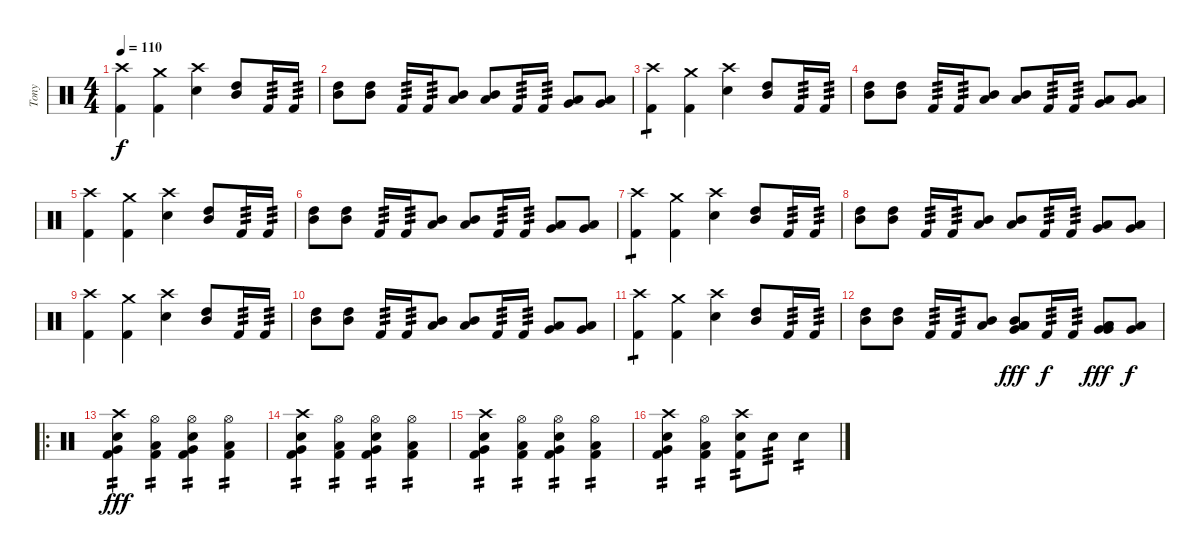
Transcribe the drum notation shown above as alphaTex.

\track ("Tony" "Tony") {instrument percussion}
\staff {score}
\articulation defaults
\ts (4 4)
\tempo 110
\clef neutral
\ks c
("Crash high (hit)" "Kick (hit) 2").4{dy f} ("Crash medium (hit)" "Kick (hit) 2").4 ("Crash high (hit)" "Snare (hit) 2").4 ("Mid Tom (hit)" "High Tom (hit)").8 "Kick (hit) 2".16{tp 3} "Kick (hit) 2".16{tp 3} |
("Mid Tom (hit)" "High Tom (hit)").8 ("Mid Tom (hit)" "High Tom (hit)").8 "Kick (hit) 2".16{tp 3} "Kick (hit) 2".16{tp 3} ("Low Tom (hit)" "Mid Tom (hit)").8 ("Low Tom (hit)" "Mid Tom (hit)").8 "Kick (hit) 2".16{tp 3} "Kick (hit) 2".16{tp 3} ("Very Low Tom (hit)" "Low Tom (hit)").8 ("Very Low Tom (hit)" "Low Tom (hit)").8 |
("Crash high (hit)" "Kick (hit) 2").4{tp 1} ("Crash medium (hit)" "Kick (hit) 2").4 ("Crash high (hit)" "Snare (hit) 2").4 ("Mid Tom (hit)" "High Tom (hit)").8 "Kick (hit) 2".16{tp 3} "Kick (hit) 2".16{tp 3} |
("Mid Tom (hit)" "High Tom (hit)").8 ("Mid Tom (hit)" "High Tom (hit)").8 "Kick (hit) 2".16{tp 3} "Kick (hit) 2".16{tp 3} ("Low Tom (hit)" "Mid Tom (hit)").8 ("Low Tom (hit)" "Mid Tom (hit)").8 "Kick (hit) 2".16{tp 3} "Kick (hit) 2".16{tp 3} ("Very Low Tom (hit)" "Low Tom (hit)").8 ("Very Low Tom (hit)" "Low Tom (hit)").8 |
("Crash high (hit)" "Kick (hit) 2").4 ("Crash medium (hit)" "Kick (hit) 2").4 ("Crash high (hit)" "Snare (hit) 2").4 ("Mid Tom (hit)" "High Tom (hit)").8 "Kick (hit) 2".16{tp 3} "Kick (hit) 2".16{tp 3} |
("Mid Tom (hit)" "High Tom (hit)").8 ("Mid Tom (hit)" "High Tom (hit)").8 "Kick (hit) 2".16{tp 3} "Kick (hit) 2".16{tp 3} ("Low Tom (hit)" "Mid Tom (hit)").8 ("Low Tom (hit)" "Mid Tom (hit)").8 "Kick (hit) 2".16{tp 3} "Kick (hit) 2".16{tp 3} ("Very Low Tom (hit)" "Low Tom (hit)").8 ("Very Low Tom (hit)" "Low Tom (hit)").8 |
("Crash high (hit)" "Kick (hit) 2").4{tp 1} ("Crash medium (hit)" "Kick (hit) 2").4 ("Crash high (hit)" "Snare (hit) 2").4 ("Mid Tom (hit)" "High Tom (hit)").8 "Kick (hit) 2".16{tp 3} "Kick (hit) 2".16{tp 3} |
("Mid Tom (hit)" "High Tom (hit)").8 ("Mid Tom (hit)" "High Tom (hit)").8 "Kick (hit) 2".16{tp 3} "Kick (hit) 2".16{tp 3} ("Low Tom (hit)" "Mid Tom (hit)").8 ("Low Tom (hit)" "Mid Tom (hit)").8 "Kick (hit) 2".16{tp 3} "Kick (hit) 2".16{tp 3} ("Very Low Tom (hit)" "Low Tom (hit)").8 ("Very Low Tom (hit)" "Low Tom (hit)").8 |
("Crash high (hit)" "Kick (hit) 2").4 ("Crash medium (hit)" "Kick (hit) 2").4 ("Crash high (hit)" "Snare (hit) 2").4 ("Mid Tom (hit)" "High Tom (hit)").8 "Kick (hit) 2".16{tp 3} "Kick (hit) 2".16{tp 3} |
("Mid Tom (hit)" "High Tom (hit)").8 ("Mid Tom (hit)" "High Tom (hit)").8 "Kick (hit) 2".16{tp 3} "Kick (hit) 2".16{tp 3} ("Low Tom (hit)" "Mid Tom (hit)").8 ("Low Tom (hit)" "Mid Tom (hit)").8 "Kick (hit) 2".16{tp 3} "Kick (hit) 2".16{tp 3} ("Very Low Tom (hit)" "Low Tom (hit)").8 ("Very Low Tom (hit)" "Low Tom (hit)").8 |
("Crash high (hit)" "Kick (hit) 2").4{tp 1} ("Crash medium (hit)" "Kick (hit) 2").4 ("Crash high (hit)" "Snare (hit) 2").4 ("Mid Tom (hit)" "High Tom (hit)").8 "Kick (hit) 2".16{tp 3} "Kick (hit) 2".16{tp 3} |
("Mid Tom (hit)" "High Tom (hit)").8 ("Mid Tom (hit)" "High Tom (hit)").8 "Kick (hit) 2".16{tp 3} "Kick (hit) 2".16{tp 3} ("Low Tom (hit)" "Mid Tom (hit)").8 ("Very Low Tom (hit)" "Low Floor Tom (hit)" "Low Tom (hit)" "Mid Tom (hit)").8{dy fff} "Kick (hit) 2".16{tp 3 dy f} "Kick (hit) 2".16{tp 3} ("Very Low Tom (hit)" "Low Floor Tom (hit)" "Very Low Tom (hit)" "Low Tom (hit)").8{dy fff} ("Very Low Tom (hit)" "Low Tom (hit)").8{dy f} |
\ro
("Very Low Tom (hit)" "Crash high (hit)" "Snare (hit) 2" "Kick (hit) 2").4{tp 2 dy fff} ("Low Floor Tom (hit)" "Hi-Hat (open)" "Kick (hit) 2").4{tp 2} ("Very Low Tom (hit)" "Hi-Hat (open)" "Snare (hit) 2" "Kick (hit) 2").4{tp 2} ("Low Floor Tom (hit)" "Hi-Hat (open)" "Kick (hit) 2").4{tp 2} |
("Very Low Tom (hit)" "Crash high (hit)" "Snare (hit) 2" "Kick (hit) 2").4{tp 2} ("Low Floor Tom (hit)" "Hi-Hat (open)" "Kick (hit) 2").4{tp 2} ("Very Low Tom (hit)" "Hi-Hat (open)" "Snare (hit) 2" "Kick (hit) 2").4{tp 2} ("Low Floor Tom (hit)" "Hi-Hat (open)" "Kick (hit) 2").4{tp 2} |
("Very Low Tom (hit)" "Crash high (hit)" "Snare (hit) 2" "Kick (hit) 2").4{tp 2} ("Low Floor Tom (hit)" "Hi-Hat (open)" "Kick (hit) 2").4{tp 2} ("Very Low Tom (hit)" "Hi-Hat (open)" "Snare (hit) 2" "Kick (hit) 2").4{tp 2} ("Low Floor Tom (hit)" "Hi-Hat (open)" "Kick (hit) 2").4{tp 2} |
("Very Low Tom (hit)" "Crash high (hit)" "Snare (hit) 2" "Kick (hit) 2").4{tp 2} ("Low Floor Tom (hit)" "Hi-Hat (open)" "Kick (hit) 2").4{tp 2} ("Crash high (hit)" "Snare (hit) 2" "Kick (hit) 2").8{tp 2} "Snare (hit) 2".8{tp 3} "Snare (hit) 2".4{tp 2}
